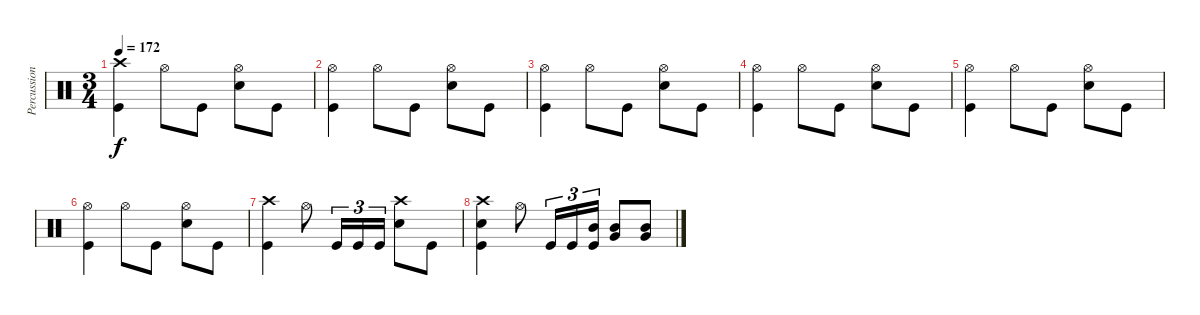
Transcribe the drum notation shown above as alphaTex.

\track ("Percussion" "Percussion") {instrument percussion}
\staff {score}
\articulation defaults
\ts (3 4)
\tempo 172
\clef neutral
\ks c
("Crash high (hit)" "Kick (hit)").4{dy f} "Hi-Hat (open)".8 "Kick (hit)".8 ("Hi-Hat (open)" "Snare (hit) 2").8 "Kick (hit)".8 |
("Hi-Hat (open)" "Kick (hit)").4 "Hi-Hat (open)".8 "Kick (hit)".8 ("Hi-Hat (open)" "Snare (hit) 2").8 "Kick (hit)".8 |
("Hi-Hat (open)" "Kick (hit)").4 "Hi-Hat (open)".8 "Kick (hit)".8 ("Hi-Hat (open)" "Snare (hit) 2").8 "Kick (hit)".8 |
("Hi-Hat (open)" "Kick (hit)").4 "Hi-Hat (open)".8 "Kick (hit)".8 ("Hi-Hat (open)" "Snare (hit) 2").8 "Kick (hit)".8 |
("Hi-Hat (open)" "Kick (hit)").4 "Hi-Hat (open)".8 "Kick (hit)".8 ("Hi-Hat (open)" "Snare (hit) 2").8 "Kick (hit)".8 |
("Hi-Hat (open)" "Kick (hit)").4 "Hi-Hat (open)".8 "Kick (hit)".8 ("Hi-Hat (open)" "Snare (hit) 2").8 "Kick (hit)".8 |
("Crash high (hit)" "Kick (hit)").4 "Hi-Hat (open)".8 "Kick (hit)".16{tu (3 2)} "Kick (hit)".16{tu (3 2)} "Kick (hit)".16{tu (3 2)} ("Crash high (hit)" "Snare (hit) 2").8 "Kick (hit)".8 |
("Crash high (hit)" "Snare (hit) 2" "Kick (hit)").4 "Hi-Hat (open)".8 "Kick (hit)".16{tu (3 2)} "Kick (hit)".16{tu (3 2)} ("Mid Tom (hit)" "Kick (hit)").16{tu (3 2)} ("Mid Tom (hit)" "Very Low Tom (hit)").8 ("Mid Tom (hit)" "Very Low Tom (hit)").8
